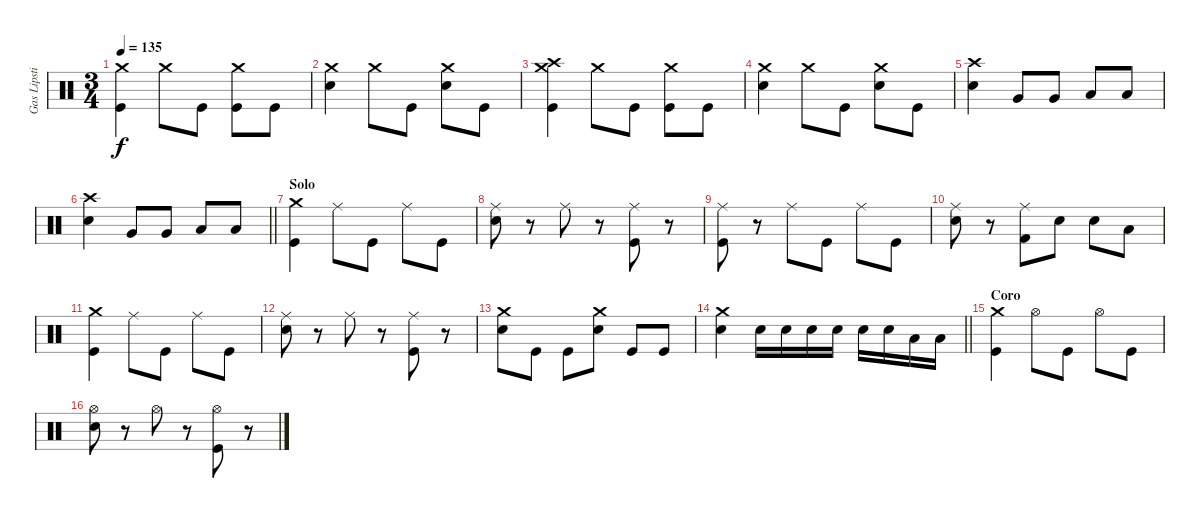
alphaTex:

\track ("Gas Lipstick" "Gas Lipsti") {instrument percussion}
\staff {score}
\articulation defaults
\ts (3 4)
\tempo 135
\clef neutral
\ks c
("Crash medium (hit)" "Kick (hit)").4{dy f} "Crash medium (hit)".8 "Kick (hit)".8 ("Crash medium (hit)" "Kick (hit)").8 "Kick (hit)".8 |
("Crash medium (hit)" "Snare (hit) 2").4 "Crash medium (hit)".8 "Kick (hit)".8 ("Crash medium (hit)" "Snare (hit) 2").8 "Kick (hit)".8 |
("Crash medium (hit)" "Crash high (hit)" "Kick (hit)").4 "Crash medium (hit)".8 "Kick (hit)".8 ("Crash medium (hit)" "Kick (hit)").8 "Kick (hit)".8 |
("Crash medium (hit)" "Snare (hit) 2").4 "Crash medium (hit)".8 "Kick (hit)".8 ("Crash medium (hit)" "Snare (hit) 2").8 "Kick (hit)".8 |
("Crash high (hit)" "Snare (hit) 2").4 "Very Low Tom (hit)".8 "Very Low Tom (hit)".8 "Low Tom (hit)".8 "Low Tom (hit)".8 |
\barLineRight lightlight
("Crash high (hit)" "Snare (hit) 2").4 "Very Low Tom (hit)".8 "Very Low Tom (hit)".8 "Low Tom (hit)".8 "Low Tom (hit)".8 |
\section ("" "Solo")
("Crash medium (hit)" "Kick (hit)").4 "Ride (middle)".8 "Kick (hit)".8 "Ride (middle)".8 "Kick (hit)".8 |
("Ride (middle)" "Snare (hit) 2").8 r.8 "Ride (middle)".8 r.8 ("Ride (middle)" "Kick (hit)").8 r.8 |
("Ride (middle)" "Kick (hit)").8 r.8 "Ride (middle)".8 "Kick (hit)".8 "Ride (middle)".8 "Kick (hit)".8 |
("Ride (middle)" "Snare (hit) 2").8 r.8 ("Ride (middle)" "Kick (hit) 2").8 "Snare (hit) 2".8 "Snare (hit) 2".8 "Low Tom (hit)".8 |
("Crash medium (hit)" "Kick (hit)").4 "Ride (middle)".8 "Kick (hit)".8 "Ride (middle)".8 "Kick (hit)".8 |
("Ride (middle)" "Snare (hit) 2").8 r.8 "Ride (middle)".8 r.8 ("Ride (middle)" "Kick (hit)").8 r.8 |
("Crash medium (hit)" "Snare (hit) 2").8 "Kick (hit)".8 "Kick (hit)".8 ("Crash medium (hit)" "Snare (hit) 2").8 "Kick (hit)".8 "Kick (hit)".8 |
\barLineRight lightlight
("Crash medium (hit)" "Snare (hit) 2").4 "Snare (hit) 2".16 "Snare (hit) 2".16 "Snare (hit) 2".16 "Snare (hit) 2".16 "Snare (hit) 2".16 "Snare (hit) 2".16 "Low Tom (hit)".16 "Low Tom (hit)".16 |
\section ("" "Coro")
("Crash medium (hit)" "Kick (hit)").4 "Hi-Hat (open)".8 "Kick (hit)".8 "Hi-Hat (open)".8 "Kick (hit)".8 |
("Hi-Hat (open)" "Snare (hit) 2").8 r.8 "Hi-Hat (open)".8 r.8 ("Hi-Hat (open)" "Kick (hit)").8 r.8
